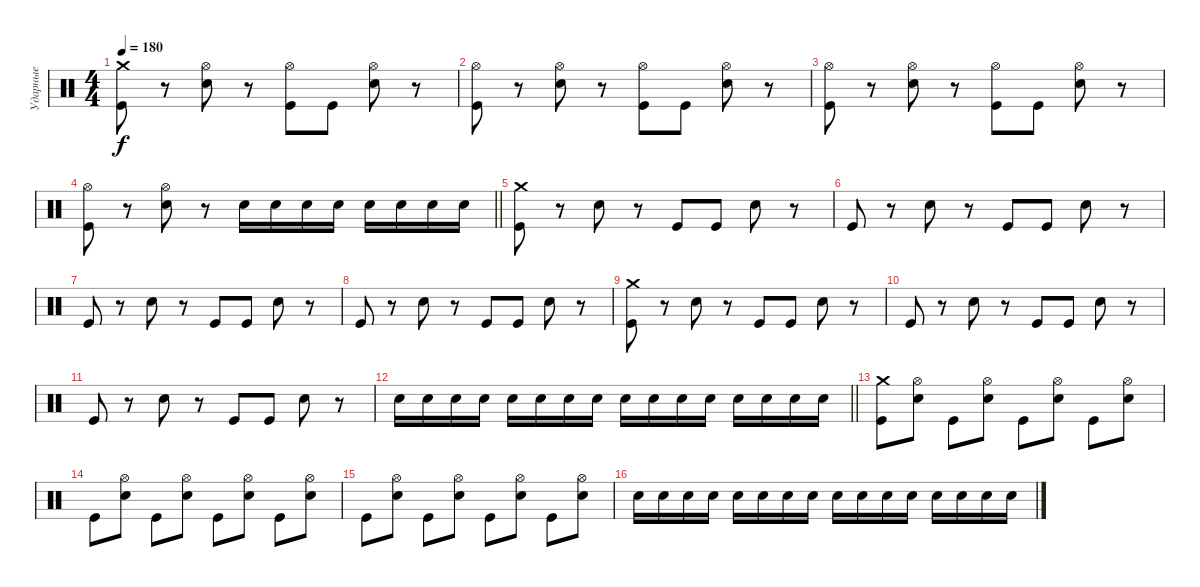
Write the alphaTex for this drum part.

\track ("Ударные" "Ударные") {instrument percussion}
\staff {score}
\articulation defaults
\ts (4 4)
\tempo 180
\clef neutral
\ks c
("Crash medium (hit)" "Kick (hit)").8{dy f} r.8 ("Hi-Hat (open)" "Electric Snare (hit)").8 r.8 ("Hi-Hat (open)" "Kick (hit)").8 "Kick (hit)".8 ("Hi-Hat (open)" "Electric Snare (hit)").8 r.8 |
("Hi-Hat (open)" "Kick (hit)").8 r.8 ("Hi-Hat (open)" "Electric Snare (hit)").8 r.8 ("Hi-Hat (open)" "Kick (hit)").8 "Kick (hit)".8 ("Hi-Hat (open)" "Electric Snare (hit)").8 r.8 |
("Hi-Hat (open)" "Kick (hit)").8 r.8 ("Hi-Hat (open)" "Electric Snare (hit)").8 r.8 ("Hi-Hat (open)" "Kick (hit)").8 "Kick (hit)".8 ("Hi-Hat (open)" "Electric Snare (hit)").8 r.8 |
\barLineRight lightlight
("Hi-Hat (open)" "Kick (hit)").8 r.8 ("Hi-Hat (open)" "Electric Snare (hit)").8 r.8 "Electric Snare (hit)".16 "Electric Snare (hit)".16 "Electric Snare (hit)".16 "Electric Snare (hit)".16 "Electric Snare (hit)".16 "Electric Snare (hit)".16 "Electric Snare (hit)".16 "Electric Snare (hit)".16 |
("Crash medium (hit)" "Kick (hit)").8 r.8 "Electric Snare (hit)".8 r.8 "Kick (hit)".8 "Kick (hit)".8 "Electric Snare (hit)".8 r.8 |
"Kick (hit)".8 r.8 "Electric Snare (hit)".8 r.8 "Kick (hit)".8 "Kick (hit)".8 "Electric Snare (hit)".8 r.8 |
"Kick (hit)".8 r.8 "Electric Snare (hit)".8 r.8 "Kick (hit)".8 "Kick (hit)".8 "Electric Snare (hit)".8 r.8 |
"Kick (hit)".8 r.8 "Electric Snare (hit)".8 r.8 "Kick (hit)".8 "Kick (hit)".8 "Electric Snare (hit)".8 r.8 |
("Crash medium (hit)" "Kick (hit)").8 r.8 "Electric Snare (hit)".8 r.8 "Kick (hit)".8 "Kick (hit)".8 "Electric Snare (hit)".8 r.8 |
"Kick (hit)".8 r.8 "Electric Snare (hit)".8 r.8 "Kick (hit)".8 "Kick (hit)".8 "Electric Snare (hit)".8 r.8 |
"Kick (hit)".8 r.8 "Electric Snare (hit)".8 r.8 "Kick (hit)".8 "Kick (hit)".8 "Electric Snare (hit)".8 r.8 |
\barLineRight lightlight "Electric Snare (hit)".16 "Electric Snare (hit)".16 "Electric Snare (hit)".16 "Electric Snare (hit)".16 "Electric Snare (hit)".16 "Electric Snare (hit)".16 "Electric Snare (hit)".16 "Electric Snare (hit)".16 "Electric Snare (hit)".16 "Electric Snare (hit)".16 "Electric Snare (hit)".16 "Electric Snare (hit)".16 "Electric Snare (hit)".16 "Electric Snare (hit)".16 "Electric Snare (hit)".16 "Electric Snare (hit)".16
|
("Crash medium (hit)" "Kick (hit)").8 ("Hi-Hat (open)" "Electric Snare (hit)").8 "Kick (hit)".8 ("Hi-Hat (open)" "Electric Snare (hit)").8 "Kick (hit)".8 ("Hi-Hat (open)" "Electric Snare (hit)").8 "Kick (hit)".8 ("Hi-Hat (open)" "Electric Snare (hit)").8 |
"Kick (hit)".8 ("Hi-Hat (open)" "Electric Snare (hit)").8 "Kick (hit)".8 ("Hi-Hat (open)" "Electric Snare (hit)").8 "Kick (hit)".8 ("Hi-Hat (open)" "Electric Snare (hit)").8 "Kick (hit)".8 ("Hi-Hat (open)" "Electric Snare (hit)").8 |
"Kick (hit)".8 ("Hi-Hat (open)" "Electric Snare (hit)").8 "Kick (hit)".8 ("Hi-Hat (open)" "Electric Snare (hit)").8 "Kick (hit)".8 ("Hi-Hat (open)" "Electric Snare (hit)").8 "Kick (hit)".8 ("Hi-Hat (open)" "Electric Snare (hit)").8 |
"Electric Snare (hit)".16 "Electric Snare (hit)".16 "Electric Snare (hit)".16 "Electric Snare (hit)".16 "Electric Snare (hit)".16 "Electric Snare (hit)".16 "Electric Snare (hit)".16 "Electric Snare (hit)".16 "Electric Snare (hit)".16 "Electric Snare (hit)".16 "Electric Snare (hit)".16 "Electric Snare (hit)".16 "Electric Snare (hit)".16 "Electric Snare (hit)".16 "Electric Snare (hit)".16 "Electric Snare (hit)".16
